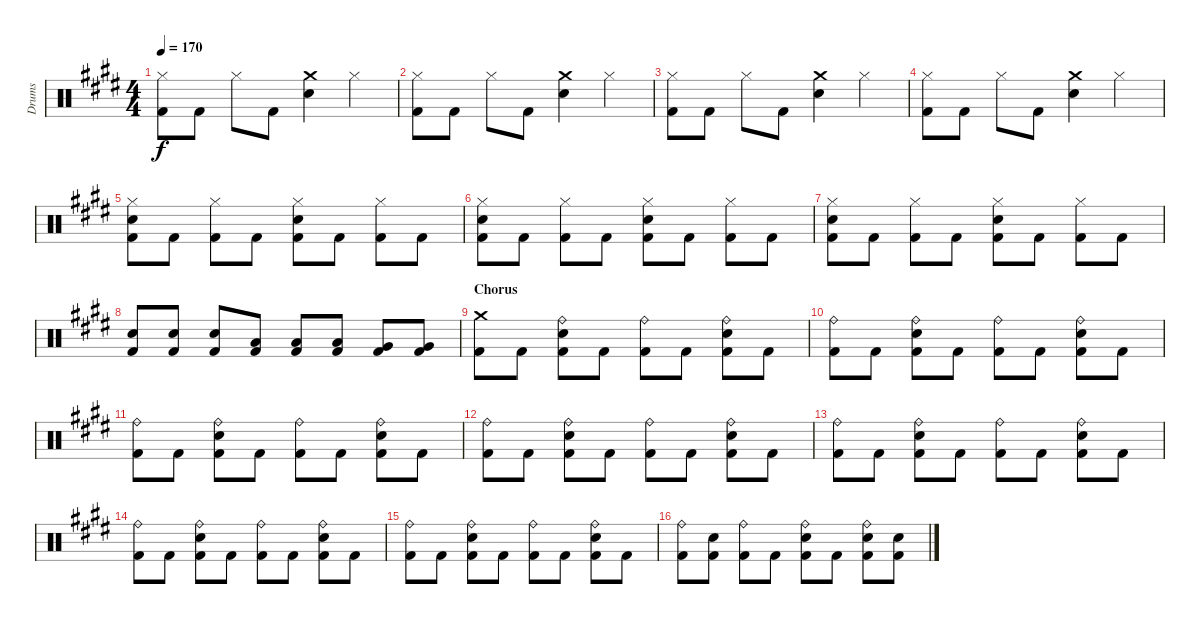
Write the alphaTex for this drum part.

\track ("Drums" "Drums") {instrument percussion}
\staff {score}
\articulation defaults
\ts (4 4)
\tempo 170
\clef neutral
\ks c#minor
("Hi-Hat (closed)" "Kick (hit) 2").8{dy f} "Kick (hit) 2".8 "Hi-Hat (closed)".8 "Kick (hit) 2".8 ("Crash medium (hit)" "Electric Snare (hit)").4 "Hi-Hat (closed)".4 |
("Hi-Hat (closed)" "Kick (hit) 2").8 "Kick (hit) 2".8 "Hi-Hat (closed)".8 "Kick (hit) 2".8 ("Crash medium (hit)" "Electric Snare (hit)").4 "Hi-Hat (closed)".4 |
("Hi-Hat (closed)" "Kick (hit) 2").8 "Kick (hit) 2".8 "Hi-Hat (closed)".8 "Kick (hit) 2".8 ("Crash medium (hit)" "Electric Snare (hit)").4 "Hi-Hat (closed)".4 |
("Hi-Hat (closed)" "Kick (hit) 2").8 "Kick (hit) 2".8 "Hi-Hat (closed)".8 "Kick (hit) 2".8 ("Crash medium (hit)" "Electric Snare (hit)").4 "Hi-Hat (closed)".4 |
("Hi-Hat (closed)" "Electric Snare (hit)" "Kick (hit) 2").8 "Kick (hit) 2".8 ("Hi-Hat (closed)" "Kick (hit) 2").8 "Kick (hit) 2".8 ("Hi-Hat (closed)" "Electric Snare (hit)" "Kick (hit) 2").8 "Kick (hit) 2".8 ("Hi-Hat (closed)" "Kick (hit) 2").8 "Kick (hit) 2".8 |
("Hi-Hat (closed)" "Electric Snare (hit)" "Kick (hit) 2").8 "Kick (hit) 2".8 ("Hi-Hat (closed)" "Kick (hit) 2").8 "Kick (hit) 2".8 ("Hi-Hat (closed)" "Electric Snare (hit)" "Kick (hit) 2").8 "Kick (hit) 2".8 ("Hi-Hat (closed)" "Kick (hit) 2").8 "Kick (hit) 2".8 |
("Hi-Hat (closed)" "Electric Snare (hit)" "Kick (hit) 2").8 "Kick (hit) 2".8 ("Hi-Hat (closed)" "Kick (hit) 2").8 "Kick (hit) 2".8 ("Hi-Hat (closed)" "Electric Snare (hit)" "Kick (hit) 2").8 "Kick (hit) 2".8 ("Hi-Hat (closed)" "Kick (hit) 2").8 "Kick (hit) 2".8 |
("Electric Snare (hit)" "Kick (hit) 2").8 ("Electric Snare (hit)" "Kick (hit) 2").8 ("Electric Snare (hit)" "Kick (hit) 2").8 ("Low Tom (hit)" "Kick (hit) 2").8 ("Low Tom (hit)" "Kick (hit) 2").8 ("Low Tom (hit)" "Kick (hit) 2").8 ("Very Low Tom (hit)" "Kick (hit) 2").8 ("Very Low Tom (hit)" "Kick (hit) 2").8 |
\section ("" "Chorus")
("Crash medium (hit)" "Kick (hit) 2").8 "Kick (hit) 2".8 ("Ride (bell)" "Electric Snare (hit)" "Kick (hit) 2").8 "Kick (hit) 2".8 ("Ride (bell)" "Kick (hit) 2").8 "Kick (hit) 2".8 ("Ride (bell)" "Electric Snare (hit)" "Kick (hit) 2").8 "Kick (hit) 2".8 |
("Ride (bell)" "Kick (hit) 2").8 "Kick (hit) 2".8 ("Ride (bell)" "Electric Snare (hit)" "Kick (hit) 2").8 "Kick (hit) 2".8 ("Ride (bell)" "Kick (hit) 2").8 "Kick (hit) 2".8 ("Ride (bell)" "Electric Snare (hit)" "Kick (hit) 2").8 "Kick (hit) 2".8 |
("Ride (bell)" "Kick (hit) 2").8 "Kick (hit) 2".8 ("Ride (bell)" "Electric Snare (hit)" "Kick (hit) 2").8 "Kick (hit) 2".8 ("Ride (bell)" "Kick (hit) 2").8 "Kick (hit) 2".8 ("Ride (bell)" "Electric Snare (hit)" "Kick (hit) 2").8 "Kick (hit) 2".8 |
("Ride (bell)" "Kick (hit) 2").8 "Kick (hit) 2".8 ("Ride (bell)" "Electric Snare (hit)" "Kick (hit) 2").8 "Kick (hit) 2".8 ("Ride (bell)" "Kick (hit) 2").8 "Kick (hit) 2".8 ("Ride (bell)" "Electric Snare (hit)" "Kick (hit) 2").8 "Kick (hit) 2".8 |
("Ride (bell)" "Kick (hit) 2").8 "Kick (hit) 2".8 ("Ride (bell)" "Electric Snare (hit)" "Kick (hit) 2").8 "Kick (hit) 2".8 ("Ride (bell)" "Kick (hit) 2").8 "Kick (hit) 2".8 ("Ride (bell)" "Electric Snare (hit)" "Kick (hit) 2").8 "Kick (hit) 2".8 |
("Ride (bell)" "Kick (hit) 2").8 "Kick (hit) 2".8 ("Ride (bell)" "Electric Snare (hit)" "Kick (hit) 2").8 "Kick (hit) 2".8 ("Ride (bell)" "Kick (hit) 2").8 "Kick (hit) 2".8 ("Ride (bell)" "Electric Snare (hit)" "Kick (hit) 2").8 "Kick (hit) 2".8 |
("Ride (bell)" "Kick (hit) 2").8 "Kick (hit) 2".8 ("Ride (bell)" "Electric Snare (hit)" "Kick (hit) 2").8 "Kick (hit) 2".8 ("Ride (bell)" "Kick (hit) 2").8 "Kick (hit) 2".8 ("Ride (bell)" "Electric Snare (hit)" "Kick (hit) 2").8 "Kick (hit) 2".8 |
("Ride (bell)" "Kick (hit) 2").8 ("Electric Snare (hit)" "Kick (hit) 2").8 ("Ride (bell)" "Kick (hit) 2").8 "Kick (hit) 2".8 ("Ride (bell)" "Electric Snare (hit)" "Kick (hit) 2").8 "Kick (hit) 2".8 ("Ride (bell)" "Electric Snare (hit)" "Kick (hit) 2").8 ("Electric Snare (hit)" "Kick (hit) 2").8
